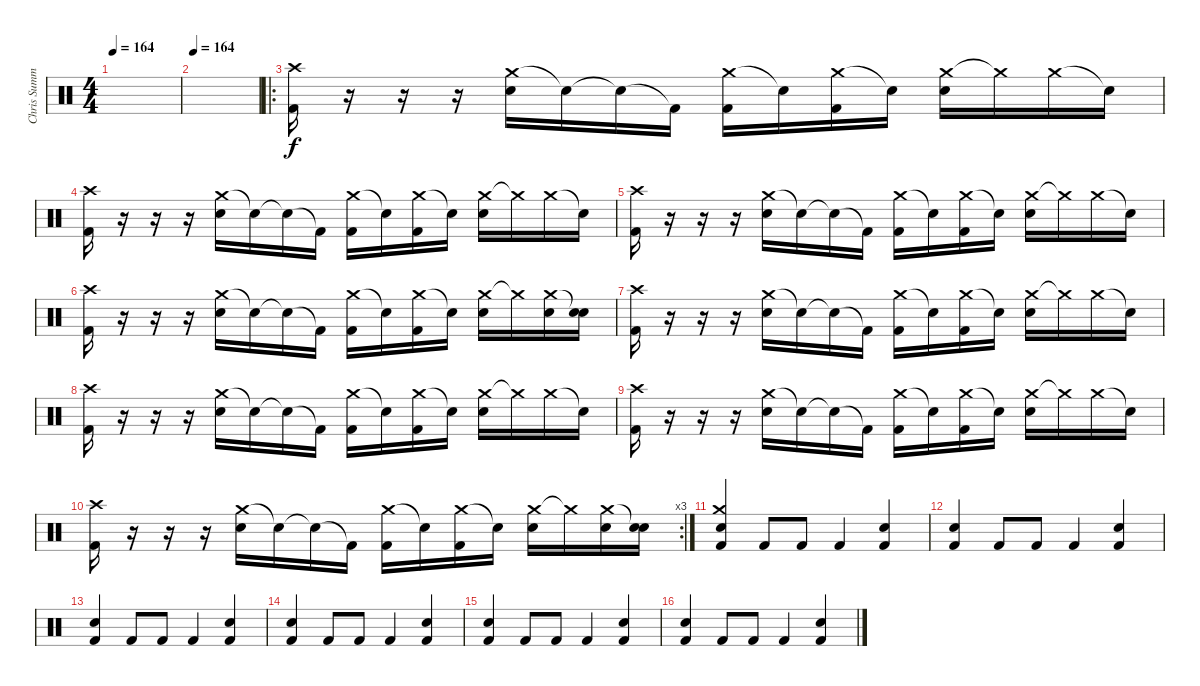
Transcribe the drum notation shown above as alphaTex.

\track ("Chris Summers" "Chris Summ") {instrument percussion}
\staff {score}
\articulation defaults
\ts (4 4)
\tempo 164
\clef neutral
\ks c
|
\tempo 164
|
\ro
("Crash high (hit)" "Kick (hit) 2").16 r.16 r.16 r.16 ("Crash medium (hit)" "Snare (hit) 2").16 "Snare (hit)"{t}.16 "Snare (hit)"{t}.16 "Kick (hit) 2"{t}.16 ("Crash medium (hit)" "Kick (hit) 2").16 "Snare (hit)"{t}.16 ("Crash medium (hit)" "Kick (hit) 2").16 "Snare (hit)"{t}.16 ("Crash medium (hit)" "Snare (hit) 2").16 "Crash medium (hit)"{t}.16 "Crash medium (hit)".16 "Snare (hit)"{t}.16 |
("Crash high (hit)" "Kick (hit) 2").16 r.16 r.16 r.16 ("Crash medium (hit)" "Snare (hit) 2").16 "Snare (hit)"{t}.16 "Snare (hit)"{t}.16 "Kick (hit) 2"{t}.16 ("Crash medium (hit)" "Kick (hit) 2").16 "Snare (hit)"{t}.16 ("Crash medium (hit)" "Kick (hit) 2").16 "Snare (hit)"{t}.16 ("Crash medium (hit)" "Snare (hit) 2").16 "Crash medium (hit)"{t}.16 "Crash medium (hit)".16 "Snare (hit)"{t}.16 |
("Crash high (hit)" "Kick (hit) 2").16 r.16 r.16 r.16 ("Crash medium (hit)" "Snare (hit) 2").16 "Snare (hit)"{t}.16 "Snare (hit)"{t}.16 "Kick (hit) 2"{t}.16 ("Crash medium (hit)" "Kick (hit) 2").16 "Snare (hit)"{t}.16 ("Crash medium (hit)" "Kick (hit) 2").16 "Snare (hit)"{t}.16 ("Crash medium (hit)" "Snare (hit) 2").16 "Crash medium (hit)"{t}.16 "Crash medium (hit)".16 "Snare (hit)"{t}.16 |
("Crash high (hit)" "Kick (hit) 2").16 r.16 r.16 r.16 ("Crash medium (hit)" "Snare (hit) 2").16 "Snare (hit)"{t}.16 "Snare (hit)"{t}.16 "Kick (hit) 2"{t}.16 ("Crash medium (hit)" "Kick (hit) 2").16 "Snare (hit)"{t}.16 ("Crash medium (hit)" "Kick (hit) 2").16 "Snare (hit)"{t}.16 ("Crash medium (hit)" "Snare (hit) 2").16 "Crash medium (hit)"{t}.16 ("Crash medium (hit)" "Snare (hit) 2").16 ("Snare (hit)"{t} "Snare (hit) 2").16 |
("Crash high (hit)" "Kick (hit) 2").16 r.16 r.16 r.16 ("Crash medium (hit)" "Snare (hit) 2").16 "Snare (hit)"{t}.16 "Snare (hit)"{t}.16 "Kick (hit) 2"{t}.16 ("Crash medium (hit)" "Kick (hit) 2").16 "Snare (hit)"{t}.16 ("Crash medium (hit)" "Kick (hit) 2").16 "Snare (hit)"{t}.16 ("Crash medium (hit)" "Snare (hit) 2").16 "Crash medium (hit)"{t}.16 "Crash medium (hit)".16 "Snare (hit)"{t}.16 |
("Crash high (hit)" "Kick (hit) 2").16 r.16 r.16 r.16 ("Crash medium (hit)" "Snare (hit) 2").16 "Snare (hit)"{t}.16 "Snare (hit)"{t}.16 "Kick (hit) 2"{t}.16 ("Crash medium (hit)" "Kick (hit) 2").16 "Snare (hit)"{t}.16 ("Crash medium (hit)" "Kick (hit) 2").16 "Snare (hit)"{t}.16 ("Crash medium (hit)" "Snare (hit) 2").16 "Crash medium (hit)"{t}.16 "Crash medium (hit)".16 "Snare (hit)"{t}.16 |
("Crash high (hit)" "Kick (hit) 2").16 r.16 r.16 r.16 ("Crash medium (hit)" "Snare (hit) 2").16 "Snare (hit)"{t}.16 "Snare (hit)"{t}.16 "Kick (hit) 2"{t}.16 ("Crash medium (hit)" "Kick (hit) 2").16 "Snare (hit)"{t}.16 ("Crash medium (hit)" "Kick (hit) 2").16 "Snare (hit)"{t}.16 ("Crash medium (hit)" "Snare (hit) 2").16 "Crash medium (hit)"{t}.16 "Crash medium (hit)".16 "Snare (hit)"{t}.16 |
\rc 3
("Crash high (hit)" "Kick (hit) 2").16 r.16 r.16 r.16 ("Crash medium (hit)" "Snare (hit) 2").16 "Snare (hit)"{t}.16 "Snare (hit)"{t}.16 "Kick (hit) 2"{t}.16 ("Crash medium (hit)" "Kick (hit) 2").16 "Snare (hit)"{t}.16 ("Crash medium (hit)" "Kick (hit) 2").16 "Snare (hit)"{t}.16 ("Crash medium (hit)" "Snare (hit) 2").16 "Crash medium (hit)"{t}.16 ("Crash medium (hit)" "Snare (hit) 2").16 ("Snare (hit)"{t} "Snare (hit) 2").16 |
("Crash medium (hit)" "Snare (hit) 2" "Kick (hit) 2").4 "Kick (hit) 2".8 "Kick (hit) 2".8 "Kick (hit) 2".4 ("Snare (hit) 2" "Kick (hit) 2").4 |
("Snare (hit) 2" "Kick (hit) 2").4 "Kick (hit) 2".8 "Kick (hit) 2".8 "Kick (hit) 2".4 ("Snare (hit) 2" "Kick (hit) 2").4 |
("Snare (hit) 2" "Kick (hit) 2").4 "Kick (hit) 2".8 "Kick (hit) 2".8 "Kick (hit) 2".4 ("Snare (hit) 2" "Kick (hit) 2").4 |
("Snare (hit) 2" "Kick (hit) 2").4 "Kick (hit) 2".8 "Kick (hit) 2".8 "Kick (hit) 2".4 ("Snare (hit) 2" "Kick (hit) 2").4 |
("Snare (hit) 2" "Kick (hit) 2").4 "Kick (hit) 2".8 "Kick (hit) 2".8 "Kick (hit) 2".4 ("Snare (hit) 2" "Kick (hit) 2").4 |
("Snare (hit) 2" "Kick (hit) 2").4 "Kick (hit) 2".8 "Kick (hit) 2".8 "Kick (hit) 2".4 ("Snare (hit) 2" "Kick (hit) 2").4
